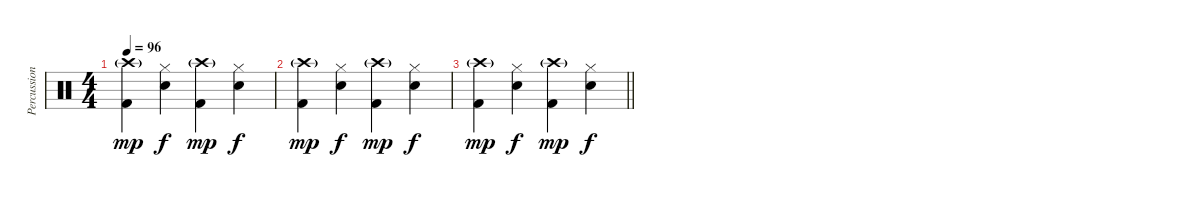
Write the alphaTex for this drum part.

\track ("Percussion" "Percussion") {instrument percussion}
\staff {score}
\articulation defaults
\ts (4 4)
\tempo 96
\clef neutral
\ks c
("Crash high (hit)"{g} "Kick (hit) 2").4{dy mp} ("Hi-Hat (closed)" "Snare (hit) 2").4{dy f} ("Crash high (hit)"{g} "Kick (hit) 2").4{dy mp} ("Hi-Hat (closed)" "Snare (hit) 2").4{dy f} |
("Crash high (hit)"{g} "Kick (hit) 2").4{dy mp} ("Hi-Hat (closed)" "Snare (hit) 2").4{dy f} ("Crash high (hit)"{g} "Kick (hit) 2").4{dy mp} ("Hi-Hat (closed)" "Snare (hit) 2").4{dy f} |
\barLineRight lightlight
("Crash high (hit)"{g} "Kick (hit) 2").4{dy mp} ("Hi-Hat (closed)" "Snare (hit) 2").4{dy f} ("Crash high (hit)"{g} "Kick (hit) 2").4{dy mp} ("Hi-Hat (closed)" "Snare (hit) 2").4{dy f}
